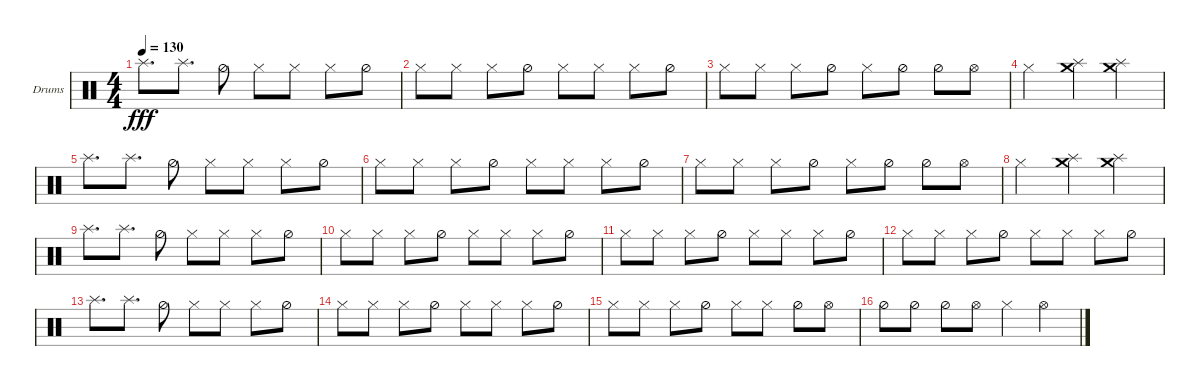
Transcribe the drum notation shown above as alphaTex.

\defaultSystemsLayout 4
\bracketExtendMode groupsimilarinstruments
\firstSystemTrackNameOrientation horizontal
\otherSystemsTrackNameOrientation horizontal
\track ("Helders" "Drums") {instrument percussion}
\staff {score}
\articulation defaults
\ts (4 4)
\tempo 130
\clef neutral
\ks c "Splash (hit)".8{d dy fff} "Splash (hit)".8{d} "Hi-Hat (half)".8 "Hi-Hat (closed)".8 "Hi-Hat (closed)".8 "Hi-Hat (closed)".8 "Hi-Hat (half)".8
|
"Hi-Hat (closed)".8 "Hi-Hat (closed)".8 "Hi-Hat (closed)".8 "Hi-Hat (half)".8 "Hi-Hat (closed)".8 "Hi-Hat (closed)".8 "Hi-Hat (closed)".8 "Hi-Hat (half)".8 |
"Hi-Hat (closed)".8 "Hi-Hat (closed)".8 "Hi-Hat (closed)".8 "Hi-Hat (half)".8 "Hi-Hat (closed)".8 "Hi-Hat (half)".8 "Hi-Hat (half)".8 "Hi-Hat (open)".8 |
"Hi-Hat (closed)".2 ("Splash (hit)" "Crash medium (hit)").4 ("Splash (hit)" "Crash medium (hit)").4 |
"Splash (hit)".8{d} "Splash (hit)".8{d} "Hi-Hat (half)".8 "Hi-Hat (closed)".8 "Hi-Hat (closed)".8 "Hi-Hat (closed)".8 "Hi-Hat (half)".8 |
"Hi-Hat (closed)".8 "Hi-Hat (closed)".8 "Hi-Hat (closed)".8 "Hi-Hat (half)".8 "Hi-Hat (closed)".8 "Hi-Hat (closed)".8 "Hi-Hat (closed)".8 "Hi-Hat (half)".8 |
"Hi-Hat (closed)".8 "Hi-Hat (closed)".8 "Hi-Hat (closed)".8 "Hi-Hat (half)".8 "Hi-Hat (closed)".8 "Hi-Hat (half)".8 "Hi-Hat (half)".8 "Hi-Hat (open)".8 |
"Hi-Hat (closed)".2 ("Splash (hit)" "Crash medium (hit)").4 ("Splash (hit)" "Crash medium (hit)").4 |
"Splash (hit)".8{d} "Splash (hit)".8{d} "Hi-Hat (half)".8 "Hi-Hat (closed)".8 "Hi-Hat (closed)".8 "Hi-Hat (closed)".8 "Hi-Hat (half)".8 |
"Hi-Hat (closed)".8 "Hi-Hat (closed)".8 "Hi-Hat (closed)".8 "Hi-Hat (half)".8 "Hi-Hat (closed)".8 "Hi-Hat (closed)".8 "Hi-Hat (closed)".8 "Hi-Hat (half)".8 |
"Hi-Hat (closed)".8 "Hi-Hat (closed)".8 "Hi-Hat (closed)".8 "Hi-Hat (half)".8 "Hi-Hat (closed)".8 "Hi-Hat (closed)".8 "Hi-Hat (closed)".8 "Hi-Hat (half)".8 |
"Hi-Hat (closed)".8 "Hi-Hat (closed)".8 "Hi-Hat (closed)".8 "Hi-Hat (half)".8 "Hi-Hat (closed)".8 "Hi-Hat (closed)".8 "Hi-Hat (closed)".8 "Hi-Hat (half)".8 |
"Splash (hit)".8{d} "Splash (hit)".8{d} "Hi-Hat (half)".8 "Hi-Hat (closed)".8 "Hi-Hat (closed)".8 "Hi-Hat (closed)".8 "Hi-Hat (half)".8 |
"Hi-Hat (closed)".8 "Hi-Hat (closed)".8 "Hi-Hat (closed)".8 "Hi-Hat (half)".8 "Hi-Hat (closed)".8 "Hi-Hat (closed)".8 "Hi-Hat (closed)".8 "Hi-Hat (half)".8 |
"Hi-Hat (closed)".8 "Hi-Hat (closed)".8 "Hi-Hat (closed)".8 "Hi-Hat (half)".8 "Hi-Hat (closed)".8 "Hi-Hat (closed)".8 "Hi-Hat (half)".8 "Hi-Hat (open)".8 |
"Hi-Hat (half)".8 "Hi-Hat (half)".8 "Hi-Hat (half)".8 "Hi-Hat (open)".8 "Hi-Hat (closed)".4 "Hi-Hat (open)".4
